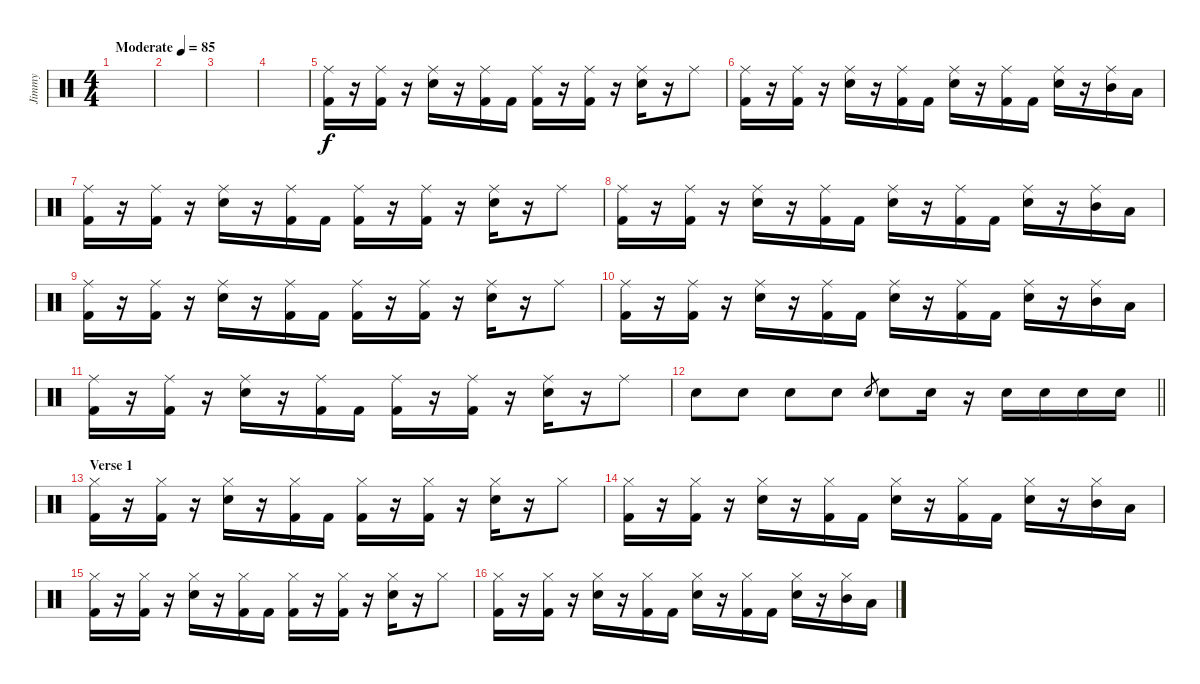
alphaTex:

\track ("Jimmy" "Jimmy") {instrument percussion}
\staff {score}
\articulation defaults
\ts (4 4)
\tempo (85 "Moderate")
\clef neutral
\ks c
|
|
|
|
("Ride (middle)" "Kick (hit) 2").16 r.16 ("Ride (middle)" "Kick (hit) 2").16 r.16 ("Ride (middle)" "Electric Snare (hit)").16 r.16 ("Ride (middle)" "Kick (hit) 2").16 "Kick (hit) 2".16 ("Ride (middle)" "Kick (hit) 2").16 r.16 ("Ride (middle)" "Kick (hit) 2").16 r.16 ("Ride (middle)" "Electric Snare (hit)").16 r.16 "Ride (middle)".8 |
("Ride (middle)" "Kick (hit) 2").16 r.16 ("Ride (middle)" "Kick (hit) 2").16 r.16 ("Ride (middle)" "Electric Snare (hit)").16 r.16 ("Ride (middle)" "Kick (hit) 2").16 "Kick (hit) 2".16 ("Ride (middle)" "Electric Snare (hit)").16 r.16 ("Ride (middle)" "Kick (hit) 2").16 "Kick (hit) 2".16 ("Ride (middle)" "Electric Snare (hit)").16 r.16 ("Ride (middle)" "Mid Tom (hit)").16 "Low Tom (hit)".16 |
("Ride (middle)" "Kick (hit) 2").16 r.16 ("Ride (middle)" "Kick (hit) 2").16 r.16 ("Ride (middle)" "Electric Snare (hit)").16 r.16 ("Ride (middle)" "Kick (hit) 2").16 "Kick (hit) 2".16 ("Ride (middle)" "Kick (hit) 2").16 r.16 ("Ride (middle)" "Kick (hit) 2").16 r.16 ("Ride (middle)" "Electric Snare (hit)").16 r.16 "Ride (middle)".8 |
("Ride (middle)" "Kick (hit) 2").16 r.16 ("Ride (middle)" "Kick (hit) 2").16 r.16 ("Ride (middle)" "Electric Snare (hit)").16 r.16 ("Ride (middle)" "Kick (hit) 2").16 "Kick (hit) 2".16 ("Ride (middle)" "Electric Snare (hit)").16 r.16 ("Ride (middle)" "Kick (hit) 2").16 "Kick (hit) 2".16 ("Ride (middle)" "Electric Snare (hit)").16 r.16 ("Ride (middle)" "Mid Tom (hit)").16 "Low Tom (hit)".16 |
("Ride (middle)" "Kick (hit) 2").16 r.16 ("Ride (middle)" "Kick (hit) 2").16 r.16 ("Ride (middle)" "Electric Snare (hit)").16 r.16 ("Ride (middle)" "Kick (hit) 2").16 "Kick (hit) 2".16 ("Ride (middle)" "Kick (hit) 2").16 r.16 ("Ride (middle)" "Kick (hit) 2").16 r.16 ("Ride (middle)" "Electric Snare (hit)").16 r.16 "Ride (middle)".8 |
("Ride (middle)" "Kick (hit) 2").16 r.16 ("Ride (middle)" "Kick (hit) 2").16 r.16 ("Ride (middle)" "Electric Snare (hit)").16 r.16 ("Ride (middle)" "Kick (hit) 2").16 "Kick (hit) 2".16 ("Ride (middle)" "Electric Snare (hit)").16 r.16 ("Ride (middle)" "Kick (hit) 2").16 "Kick (hit) 2".16 ("Ride (middle)" "Electric Snare (hit)").16 r.16 ("Ride (middle)" "Mid Tom (hit)").16 "Low Tom (hit)".16 |
("Ride (middle)" "Kick (hit) 2").16 r.16 ("Ride (middle)" "Kick (hit) 2").16 r.16 ("Ride (middle)" "Electric Snare (hit)").16 r.16 ("Ride (middle)" "Kick (hit) 2").16 "Kick (hit) 2".16 ("Ride (middle)" "Kick (hit) 2").16 r.16 ("Ride (middle)" "Kick (hit) 2").16 r.16 ("Ride (middle)" "Electric Snare (hit)").16 r.16 "Ride (middle)".8 |
\barLineRight lightlight "Electric Snare (hit)".8 "Electric Snare (hit)".8 "Electric Snare (hit)".8 "Electric Snare (hit)".8 "Electric Snare (hit)".8{gr} "Electric Snare (hit)".8 "Electric Snare (hit)".16
r.16 "Electric Snare (hit)".16 "Electric Snare (hit)".16 "Electric Snare (hit)".16 "Electric Snare (hit)".16 |
\section ("" "Verse 1")
("Hi-Hat (closed)" "Kick (hit) 2").16 r.16 ("Hi-Hat (closed)" "Kick (hit) 2").16 r.16 ("Hi-Hat (closed)" "Electric Snare (hit)").16 r.16 ("Hi-Hat (closed)" "Kick (hit) 2").16 "Kick (hit) 2".16 ("Hi-Hat (closed)" "Kick (hit) 2").16 r.16 ("Hi-Hat (closed)" "Kick (hit) 2").16 r.16 ("Hi-Hat (closed)" "Electric Snare (hit)").16 r.16 "Hi-Hat (closed)".8 |
("Hi-Hat (closed)" "Kick (hit) 2").16 r.16 ("Hi-Hat (closed)" "Kick (hit) 2").16 r.16 ("Hi-Hat (closed)" "Electric Snare (hit)").16 r.16 ("Hi-Hat (closed)" "Kick (hit) 2").16 "Kick (hit) 2".16 ("Hi-Hat (closed)" "Electric Snare (hit)").16 r.16 ("Hi-Hat (closed)" "Kick (hit) 2").16 "Kick (hit) 2".16 ("Hi-Hat (closed)" "Electric Snare (hit)").16 r.16 ("Hi-Hat (closed)" "Mid Tom (hit)").16 "Low Tom (hit)".16 |
("Hi-Hat (closed)" "Kick (hit) 2").16 r.16 ("Hi-Hat (closed)" "Kick (hit) 2").16 r.16 ("Hi-Hat (closed)" "Electric Snare (hit)").16 r.16 ("Hi-Hat (closed)" "Kick (hit) 2").16 "Kick (hit) 2".16 ("Hi-Hat (closed)" "Kick (hit) 2").16 r.16 ("Hi-Hat (closed)" "Kick (hit) 2").16 r.16 ("Hi-Hat (closed)" "Electric Snare (hit)").16 r.16 "Hi-Hat (closed)".8 |
("Hi-Hat (closed)" "Kick (hit) 2").16 r.16 ("Hi-Hat (closed)" "Kick (hit) 2").16 r.16 ("Hi-Hat (closed)" "Electric Snare (hit)").16 r.16 ("Hi-Hat (closed)" "Kick (hit) 2").16 "Kick (hit) 2".16 ("Hi-Hat (closed)" "Electric Snare (hit)").16 r.16 ("Hi-Hat (closed)" "Kick (hit) 2").16 "Kick (hit) 2".16 ("Hi-Hat (closed)" "Electric Snare (hit)").16 r.16 ("Hi-Hat (closed)" "Mid Tom (hit)").16 "Low Tom (hit)".16
